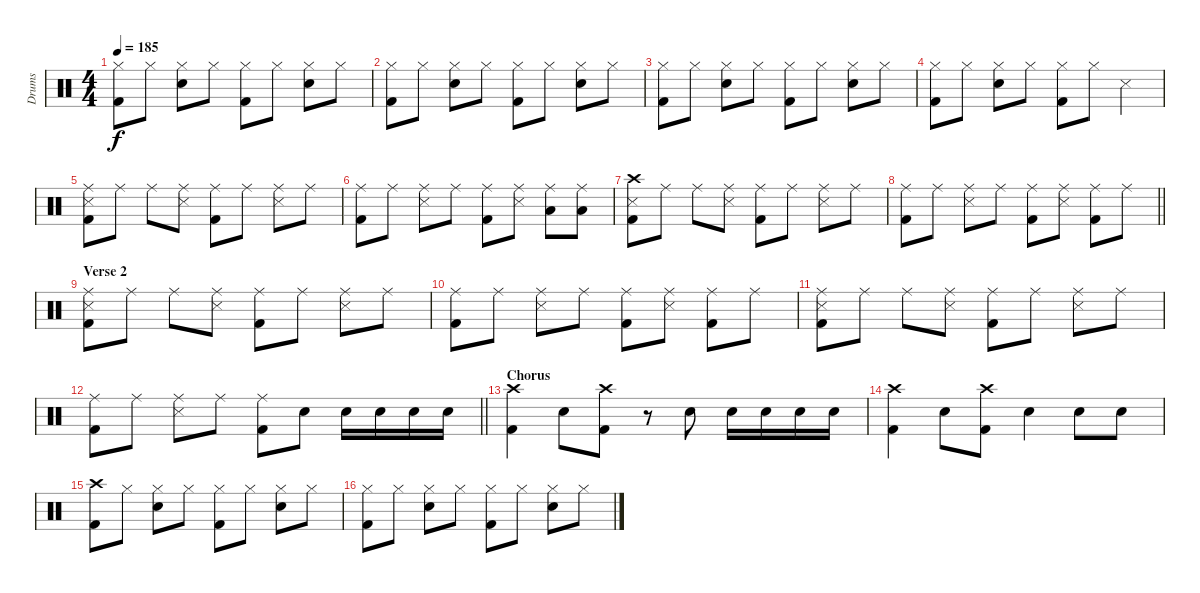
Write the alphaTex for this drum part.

\track ("Drums" "Drums") {instrument percussion}
\staff {score}
\articulation defaults
\ts (4 4)
\tempo 185
\clef neutral
\ks c
("Hi-Hat (closed)" "Kick (hit) 2").8{dy f} "Hi-Hat (closed)".8 ("Hi-Hat (closed)" "Snare (hit) 2").8 "Hi-Hat (closed)".8 ("Hi-Hat (closed)" "Kick (hit) 2").8 "Hi-Hat (closed)".8 ("Hi-Hat (closed)" "Snare (hit) 2").8 "Hi-Hat (closed)".8 |
("Hi-Hat (closed)" "Kick (hit) 2").8 "Hi-Hat (closed)".8 ("Hi-Hat (closed)" "Snare (hit) 2").8 "Hi-Hat (closed)".8 ("Hi-Hat (closed)" "Kick (hit) 2").8 "Hi-Hat (closed)".8 ("Hi-Hat (closed)" "Snare (hit) 2").8 "Hi-Hat (closed)".8 |
("Hi-Hat (closed)" "Kick (hit) 2").8 "Hi-Hat (closed)".8 ("Hi-Hat (closed)" "Snare (hit) 2").8 "Hi-Hat (closed)".8 ("Hi-Hat (closed)" "Kick (hit) 2").8 "Hi-Hat (closed)".8 ("Hi-Hat (closed)" "Snare (hit) 2").8 "Hi-Hat (closed)".8 |
("Hi-Hat (closed)" "Kick (hit) 2").8 "Hi-Hat (closed)".8 ("Hi-Hat (closed)" "Snare (hit) 2").8 "Hi-Hat (closed)".8 ("Hi-Hat (closed)" "Kick (hit) 2").8 "Hi-Hat (closed)".8 "Snare (side stick) 3".4 |
("Ride (middle)" "Snare (side stick) 3" "Kick (hit) 2").8 "Ride (middle)".8 "Ride (middle)".8 ("Ride (middle)" "Snare (side stick) 3").8 ("Ride (middle)" "Kick (hit) 2").8 "Ride (middle)".8 ("Ride (middle)" "Snare (side stick) 3").8 "Ride (middle)".8 |
("Ride (middle)" "Kick (hit) 2").8 "Ride (middle)".8 ("Ride (middle)" "Snare (side stick) 3").8 "Ride (middle)".8 ("Ride (middle)" "Kick (hit) 2").8 ("Ride (middle)" "Snare (side stick) 3").8 ("Ride (middle)" "Low Floor Tom (hit)").8 ("Ride (middle)" "Low Floor Tom (hit)").8 |
("Crash high (hit)" "Snare (side stick) 3" "Kick (hit) 2").8 "Ride (middle)".8 "Ride (middle)".8 ("Ride (middle)" "Snare (side stick) 3").8 ("Ride (middle)" "Kick (hit) 2").8 "Ride (middle)".8 ("Ride (middle)" "Snare (side stick) 3").8 "Ride (middle)".8 |
\barLineRight lightlight
("Ride (middle)" "Kick (hit) 2").8 "Ride (middle)".8 ("Ride (middle)" "Snare (side stick) 3").8 "Ride (middle)".8 ("Ride (middle)" "Kick (hit) 2").8 ("Ride (middle)" "Snare (side stick) 3").8 ("Ride (middle)" "Kick (hit) 2").8 "Ride (middle)".8 |
\section ("" "Verse 2")
("Ride (middle)" "Snare (side stick) 3" "Kick (hit) 2").8 "Ride (middle)".8 "Ride (middle)".8 ("Ride (middle)" "Snare (side stick) 3").8 ("Ride (middle)" "Kick (hit) 2").8 "Ride (middle)".8 ("Ride (middle)" "Snare (side stick) 3").8 "Ride (middle)".8 |
("Ride (middle)" "Kick (hit) 2").8 "Ride (middle)".8 ("Ride (middle)" "Snare (side stick) 3").8 "Ride (middle)".8 ("Ride (middle)" "Kick (hit) 2").8 ("Ride (middle)" "Snare (side stick) 3").8 ("Ride (middle)" "Kick (hit) 2").8 "Ride (middle)".8 |
("Ride (middle)" "Snare (side stick) 3" "Kick (hit) 2").8 "Ride (middle)".8 "Ride (middle)".8 ("Ride (middle)" "Snare (side stick) 3").8 ("Ride (middle)" "Kick (hit) 2").8 "Ride (middle)".8 ("Ride (middle)" "Snare (side stick) 3").8 "Ride (middle)".8 |
\barLineRight lightlight
("Ride (middle)" "Kick (hit) 2").8 "Ride (middle)".8 ("Ride (middle)" "Snare (side stick) 3").8 "Ride (middle)".8 ("Ride (middle)" "Kick (hit) 2").8 "Snare (hit) 2".8 "Snare (hit) 2".16 "Snare (hit) 2".16 "Snare (hit) 2".16 "Snare (hit) 2".16 |
\section ("" "Chorus")
("Crash high (hit)" "Kick (hit) 2").4 "Snare (hit) 2".8 ("Crash high (hit)" "Kick (hit) 2").8 r.8 "Snare (hit) 2".8 "Snare (hit) 2".16 "Snare (hit) 2".16 "Snare (hit) 2".16 "Snare (hit) 2".16 |
("Crash high (hit)" "Kick (hit) 2").4 "Snare (hit) 2".8 ("Crash high (hit)" "Kick (hit) 2").8 "Snare (hit) 2".4 "Snare (hit) 2".8 "Snare (hit) 2".8 |
("Crash high (hit)" "Kick (hit) 2").8 "Hi-Hat (closed)".8 ("Hi-Hat (closed)" "Snare (hit) 2").8 "Hi-Hat (closed)".8 ("Hi-Hat (closed)" "Kick (hit) 2").8 "Hi-Hat (closed)".8 ("Hi-Hat (closed)" "Snare (hit) 2").8 "Hi-Hat (closed)".8 |
("Hi-Hat (closed)" "Kick (hit) 2").8 "Hi-Hat (closed)".8 ("Hi-Hat (closed)" "Snare (hit) 2").8 "Hi-Hat (closed)".8 ("Hi-Hat (closed)" "Kick (hit) 2").8 "Hi-Hat (closed)".8 ("Hi-Hat (closed)" "Snare (hit) 2").8 "Hi-Hat (closed)".8
